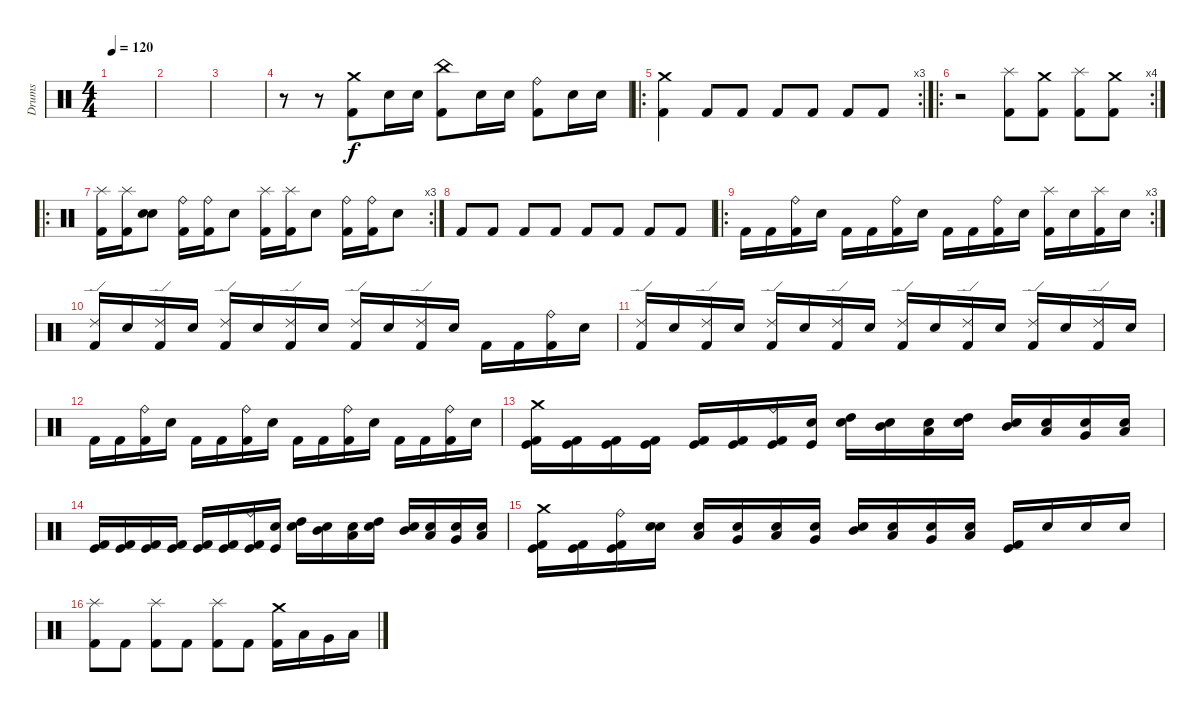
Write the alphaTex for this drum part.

\track ("Drums" "Drums") {instrument percussion}
\staff {score}
\articulation defaults
\ts (4 4)
\tempo 120
\clef neutral
\ks c
|
|
|
r.8 r.8 ("Crash medium (hit)" "Kick (hit) 2").8 "Electric Snare (hit)".16 "Electric Snare (hit)".16 ("China (hit)" "Kick (hit) 2").8 "Electric Snare (hit)".16 "Electric Snare (hit)".16 ("Ride (bell)" "Kick (hit) 2").8 "Electric Snare (hit)".16 "Electric Snare (hit)".16 |
\ro
\rc 3
("Crash medium (hit)" "Kick (hit) 2").4 "Kick (hit) 2".8 "Kick (hit) 2".8 "Kick (hit) 2".8 "Kick (hit) 2".8 "Kick (hit) 2".8 "Kick (hit) 2".8 |
\ro
\rc 4
r.2 ("Splash (hit)" "Kick (hit) 2").8 ("Crash medium (hit)" "Kick (hit) 2").8 ("Splash (hit)" "Kick (hit) 2").8 ("Crash medium (hit)" "Kick (hit) 2").8 |
\ro
\rc 3
("Splash (hit)" "Kick (hit) 2").16 ("Splash (hit)" "Kick (hit) 2").16 ("Snare (hit)" "Electric Snare (hit)").8 ("Ride (bell)" "Kick (hit) 2").16 ("Ride (bell)" "Kick (hit) 2").16 "Electric Snare (hit)".8 ("Splash (hit)" "Kick (hit) 2").16 ("Splash (hit)" "Kick (hit) 2").16 "Electric Snare (hit)".8 ("Ride (bell)" "Kick (hit) 2").16 ("Ride (bell)" "Kick (hit) 2").16 "Electric Snare (hit)".8 |
"Kick (hit) 2".8 "Kick (hit) 2".8 "Kick (hit) 2".8 "Kick (hit) 2".8 "Kick (hit) 2".8 "Kick (hit) 2".8 "Kick (hit) 2".8 "Kick (hit) 2".8 |
\ro
\rc 3 "Kick (hit) 2".16 "Kick (hit) 2".16
("Ride (bell)" "Kick (hit) 2").16 "Electric Snare (hit)".16 "Kick (hit) 2".16 "Kick (hit) 2".16 ("Ride (bell)" "Kick (hit) 2").16 "Electric Snare (hit)".16 "Kick (hit) 2".16 "Kick (hit) 2".16 ("Ride (bell)" "Kick (hit) 2").16 "Electric Snare (hit)".16 ("Splash (hit)" "Kick (hit) 2").16 "Electric Snare (hit)".16 ("Splash (hit)" "Kick (hit) 2").16 "Electric Snare (hit)".16 |
("Ride (edge) 2" "Kick (hit) 2").16 "Electric Snare (hit)".16 ("Ride (edge) 2" "Kick (hit) 2").16 "Electric Snare (hit)".16 ("Ride (edge) 2" "Kick (hit) 2").16 "Electric Snare (hit)".16 ("Ride (edge) 2" "Kick (hit) 2").16 "Electric Snare (hit)".16 ("Ride (edge) 2" "Kick (hit) 2").16 "Electric Snare (hit)".16 ("Ride (edge) 2" "Kick (hit) 2").16 "Electric Snare (hit)".16 "Kick (hit) 2".16 "Kick (hit) 2".16 ("Ride (bell)" "Kick (hit) 2").16 "Electric Snare (hit)".16 |
("Ride (edge) 2" "Kick (hit) 2").16 "Electric Snare (hit)".16 ("Ride (edge) 2" "Kick (hit) 2").16 "Electric Snare (hit)".16 ("Ride (edge) 2" "Kick (hit) 2").16 "Electric Snare (hit)".16 ("Ride (edge) 2" "Kick (hit) 2").16 "Electric Snare (hit)".16 ("Ride (edge) 2" "Kick (hit) 2").16 "Electric Snare (hit)".16 ("Ride (edge) 2" "Kick (hit) 2").16 "Electric Snare (hit)".16 ("Ride (edge) 2" "Kick (hit) 2").16 "Electric Snare (hit)".16 ("Ride (edge) 2" "Kick (hit) 2").16 "Electric Snare (hit)".16 |
"Kick (hit) 2".16 "Kick (hit) 2".16 ("Ride (bell)" "Kick (hit) 2").16 "Electric Snare (hit)".16 "Kick (hit) 2".16 "Kick (hit) 2".16 ("Ride (bell)" "Kick (hit) 2").16 "Electric Snare (hit)".16 "Kick (hit) 2".16 "Kick (hit) 2".16 ("Ride (bell)" "Kick (hit) 2").16 "Electric Snare (hit)".16 "Kick (hit) 2".16 "Kick (hit) 2".16 ("Ride (bell)" "Kick (hit) 2").16 "Electric Snare (hit)".16 |
("Crash medium (hit)" "Kick (hit)" "Kick (hit) 2").16 ("Kick (hit)" "Kick (hit) 2").16 ("Kick (hit)" "Kick (hit) 2").16 ("Kick (hit)" "Kick (hit) 2").16 ("Kick (hit)" "Kick (hit) 2").16 ("Kick (hit)" "Kick (hit) 2").16 ("Ride (bell)" "Kick (hit)" "Kick (hit) 2").16 ("Kick (hit)" "Electric Snare (hit)").16 ("Snare (hit)" "High Tom (hit)").16 ("Snare (hit)" "Mid Tom (hit)").16 ("Snare (hit)" "Low Tom (hit)").16 ("Snare (hit)" "High Tom (hit)").16 ("Snare (hit)" "Mid Tom (hit)").16 ("Snare (hit)" "Low Tom (hit)").16 ("Snare (hit)" "Very Low Tom (hit)").16 ("Snare (hit)" "Low Floor Tom (hit)").16 |
("Kick (hit)" "Kick (hit) 2").16 ("Kick (hit)" "Kick (hit) 2").16 ("Kick (hit)" "Kick (hit) 2").16 ("Kick (hit)" "Kick (hit) 2").16 ("Kick (hit)" "Kick (hit) 2").16 ("Kick (hit)" "Kick (hit) 2").16 ("Ride (bell)" "Kick (hit)" "Kick (hit) 2").16 ("Kick (hit)" "Electric Snare (hit)").16 ("Snare (hit)" "High Tom (hit)").16 ("Snare (hit)" "Mid Tom (hit)").16 ("Snare (hit)" "Low Tom (hit)").16 ("Snare (hit)" "High Tom (hit)").16 ("Snare (hit)" "Mid Tom (hit)").16 ("Snare (hit)" "Low Tom (hit)").16 ("Snare (hit)" "Very Low Tom (hit)").16 ("Snare (hit)" "Low Floor Tom (hit)").16 |
("Crash medium (hit)" "Kick (hit)" "Kick (hit) 2").16 ("Kick (hit)" "Kick (hit) 2").16 ("Ride (bell)" "Kick (hit)" "Kick (hit) 2").16 ("Snare (hit)" "Electric Snare (hit)").16 ("Snare (hit)" "Low Tom (hit)").16 ("Snare (hit)" "Very Low Tom (hit)").16 ("Snare (hit)" "Low Tom (hit)").16 ("Snare (hit)" "Very Low Tom (hit)").16 ("Snare (hit)" "Mid Tom (hit)").16 ("Snare (hit)" "Low Tom (hit)").16 ("Snare (hit)" "Very Low Tom (hit)").16 ("Snare (hit)" "Low Floor Tom (hit)").16 ("Kick (hit)" "Kick (hit) 2").16 "Electric Snare (hit)".16 "Electric Snare (hit)".16 "Electric Snare (hit)".16 |
("Splash (hit)" "Kick (hit) 2").8 "Kick (hit) 2".8 ("Splash (hit)" "Kick (hit) 2").8 "Kick (hit) 2".8 ("Splash (hit)" "Kick (hit) 2").8 "Kick (hit) 2".8 ("Crash medium (hit)" "Kick (hit) 2").16 "Low Tom (hit)".16 "Very Low Tom (hit)".16 "Low Floor Tom (hit)".16
